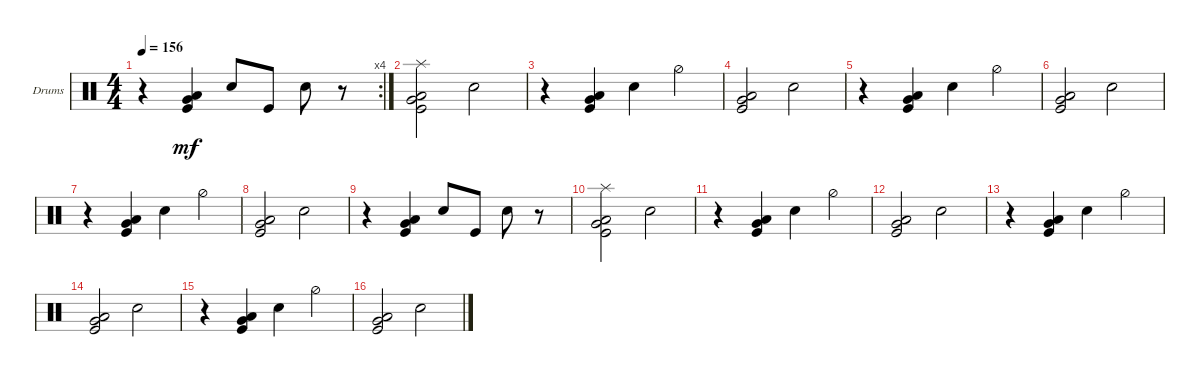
\defaultSystemsLayout 4
\bracketExtendMode groupsimilarinstruments
\firstSystemTrackNameOrientation horizontal
\otherSystemsTrackNameOrientation horizontal
\track ("Drumkit" "Drums") {instrument percussion}
\staff {score}
\articulation defaults
\rc 4
\ts (4 4)
\tempo 156
\clef neutral
\ks c
r.4{dy mf} ("Low Tom (hit)" "Kick (hit)" "Very Low Tom (hit)").4 "Snare (hit) 2".8 "Kick (hit)".8 "Snare (hit) 2".8 r.8 |
("Low Tom (hit)" "Kick (hit)" "Very Low Tom (hit)" "Splash (hit)").2 "Snare (hit) 2".2 |
r.4 ("Low Tom (hit)" "Kick (hit)" "Very Low Tom (hit)").4 "Snare (hit) 2".4 "Hi-Hat (half)".4 |
("Low Tom (hit)" "Kick (hit)" "Very Low Tom (hit)").2 "Snare (hit) 2".2 |
r.4 ("Low Tom (hit)" "Kick (hit)" "Very Low Tom (hit)").4 "Snare (hit) 2".4 "Hi-Hat (half)".4 |
("Low Tom (hit)" "Kick (hit)" "Very Low Tom (hit)").2 "Snare (hit) 2".2 |
r.4 ("Low Tom (hit)" "Kick (hit)" "Very Low Tom (hit)").4 "Snare (hit) 2".4 "Hi-Hat (half)".4 |
("Low Tom (hit)" "Kick (hit)" "Very Low Tom (hit)").2 "Snare (hit) 2".2 |
r.4 ("Low Tom (hit)" "Kick (hit)" "Very Low Tom (hit)").4 "Snare (hit) 2".8 "Kick (hit)".8 "Snare (hit) 2".8 r.8 |
("Low Tom (hit)" "Kick (hit)" "Very Low Tom (hit)" "Splash (hit)").2 "Snare (hit) 2".2 |
r.4 ("Low Tom (hit)" "Kick (hit)" "Very Low Tom (hit)").4 "Snare (hit) 2".4 "Hi-Hat (half)".4 |
("Low Tom (hit)" "Kick (hit)" "Very Low Tom (hit)").2 "Snare (hit) 2".2 |
r.4 ("Low Tom (hit)" "Kick (hit)" "Very Low Tom (hit)").4 "Snare (hit) 2".4 "Hi-Hat (half)".4 |
("Low Tom (hit)" "Kick (hit)" "Very Low Tom (hit)").2 "Snare (hit) 2".2 |
r.4 ("Low Tom (hit)" "Kick (hit)" "Very Low Tom (hit)").4 "Snare (hit) 2".4 "Hi-Hat (half)".4 |
("Low Tom (hit)" "Kick (hit)" "Very Low Tom (hit)").2 "Snare (hit) 2".2
